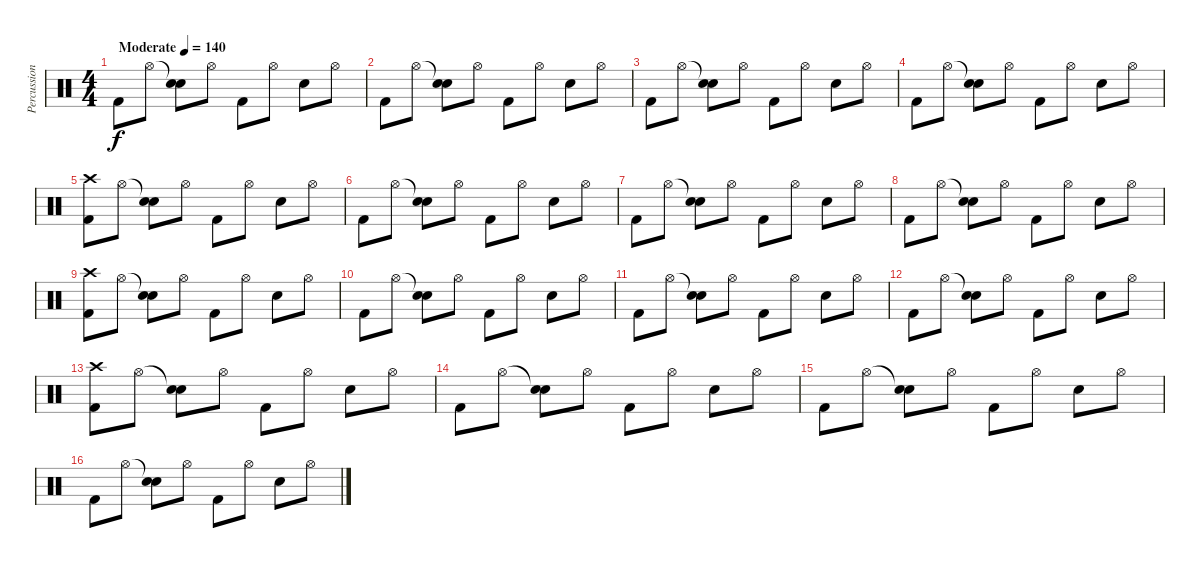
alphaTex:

\track ("Percussion" "Percussion") {instrument percussion}
\staff {score}
\articulation defaults
\ts (4 4)
\tempo (140 "Moderate")
\clef neutral
\ks c "Kick (hit) 2".8{dy f} "Hi-Hat (open)".8
("Snare (hit)"{t} "Snare (hit) 2").8 "Hi-Hat (open)".8 "Kick (hit) 2".8 "Hi-Hat (open)".8 "Snare (hit) 2".8 "Hi-Hat (open)".8 |
"Kick (hit) 2".8 "Hi-Hat (open)".8 ("Snare (hit)"{t} "Snare (hit) 2").8 "Hi-Hat (open)".8 "Kick (hit) 2".8 "Hi-Hat (open)".8 "Snare (hit) 2".8 "Hi-Hat (open)".8 |
"Kick (hit) 2".8 "Hi-Hat (open)".8 ("Snare (hit)"{t} "Snare (hit) 2").8 "Hi-Hat (open)".8 "Kick (hit) 2".8 "Hi-Hat (open)".8 "Snare (hit) 2".8 "Hi-Hat (open)".8 |
"Kick (hit) 2".8 "Hi-Hat (open)".8 ("Snare (hit)"{t} "Snare (hit) 2").8 "Hi-Hat (open)".8 "Kick (hit) 2".8 "Hi-Hat (open)".8 "Snare (hit) 2".8 "Hi-Hat (open)".8 |
("Crash high (hit)" "Kick (hit) 2").8 "Hi-Hat (open)".8 ("Snare (hit)"{t} "Snare (hit) 2").8 "Hi-Hat (open)".8 "Kick (hit) 2".8 "Hi-Hat (open)".8 "Snare (hit) 2".8 "Hi-Hat (open)".8 |
"Kick (hit) 2".8 "Hi-Hat (open)".8 ("Snare (hit)"{t} "Snare (hit) 2").8 "Hi-Hat (open)".8 "Kick (hit) 2".8 "Hi-Hat (open)".8 "Snare (hit) 2".8 "Hi-Hat (open)".8 |
"Kick (hit) 2".8 "Hi-Hat (open)".8 ("Snare (hit)"{t} "Snare (hit) 2").8 "Hi-Hat (open)".8 "Kick (hit) 2".8 "Hi-Hat (open)".8 "Snare (hit) 2".8 "Hi-Hat (open)".8 |
"Kick (hit) 2".8 "Hi-Hat (open)".8 ("Snare (hit)"{t} "Snare (hit) 2").8 "Hi-Hat (open)".8 "Kick (hit) 2".8 "Hi-Hat (open)".8 "Snare (hit) 2".8 "Hi-Hat (open)".8 |
("Crash high (hit)" "Kick (hit) 2").8 "Hi-Hat (open)".8 ("Snare (hit)"{t} "Snare (hit) 2").8 "Hi-Hat (open)".8 "Kick (hit) 2".8 "Hi-Hat (open)".8 "Snare (hit) 2".8 "Hi-Hat (open)".8 |
"Kick (hit) 2".8 "Hi-Hat (open)".8 ("Snare (hit)"{t} "Snare (hit) 2").8 "Hi-Hat (open)".8 "Kick (hit) 2".8 "Hi-Hat (open)".8 "Snare (hit) 2".8 "Hi-Hat (open)".8 |
"Kick (hit) 2".8 "Hi-Hat (open)".8 ("Snare (hit)"{t} "Snare (hit) 2").8 "Hi-Hat (open)".8 "Kick (hit) 2".8 "Hi-Hat (open)".8 "Snare (hit) 2".8 "Hi-Hat (open)".8 |
"Kick (hit) 2".8 "Hi-Hat (open)".8 ("Snare (hit)"{t} "Snare (hit) 2").8 "Hi-Hat (open)".8 "Kick (hit) 2".8 "Hi-Hat (open)".8 "Snare (hit) 2".8 "Hi-Hat (open)".8 |
("Crash high (hit)" "Kick (hit) 2").8 "Hi-Hat (open)".8 ("Snare (hit)"{t} "Snare (hit) 2").8 "Hi-Hat (open)".8 "Kick (hit) 2".8 "Hi-Hat (open)".8 "Snare (hit) 2".8 "Hi-Hat (open)".8 |
"Kick (hit) 2".8 "Hi-Hat (open)".8 ("Snare (hit)"{t} "Snare (hit) 2").8 "Hi-Hat (open)".8 "Kick (hit) 2".8 "Hi-Hat (open)".8 "Snare (hit) 2".8 "Hi-Hat (open)".8 |
"Kick (hit) 2".8 "Hi-Hat (open)".8 ("Snare (hit)"{t} "Snare (hit) 2").8 "Hi-Hat (open)".8 "Kick (hit) 2".8 "Hi-Hat (open)".8 "Snare (hit) 2".8 "Hi-Hat (open)".8 |
"Kick (hit) 2".8 "Hi-Hat (open)".8 ("Snare (hit)"{t} "Snare (hit) 2").8 "Hi-Hat (open)".8 "Kick (hit) 2".8 "Hi-Hat (open)".8 "Snare (hit) 2".8 "Hi-Hat (open)".8
